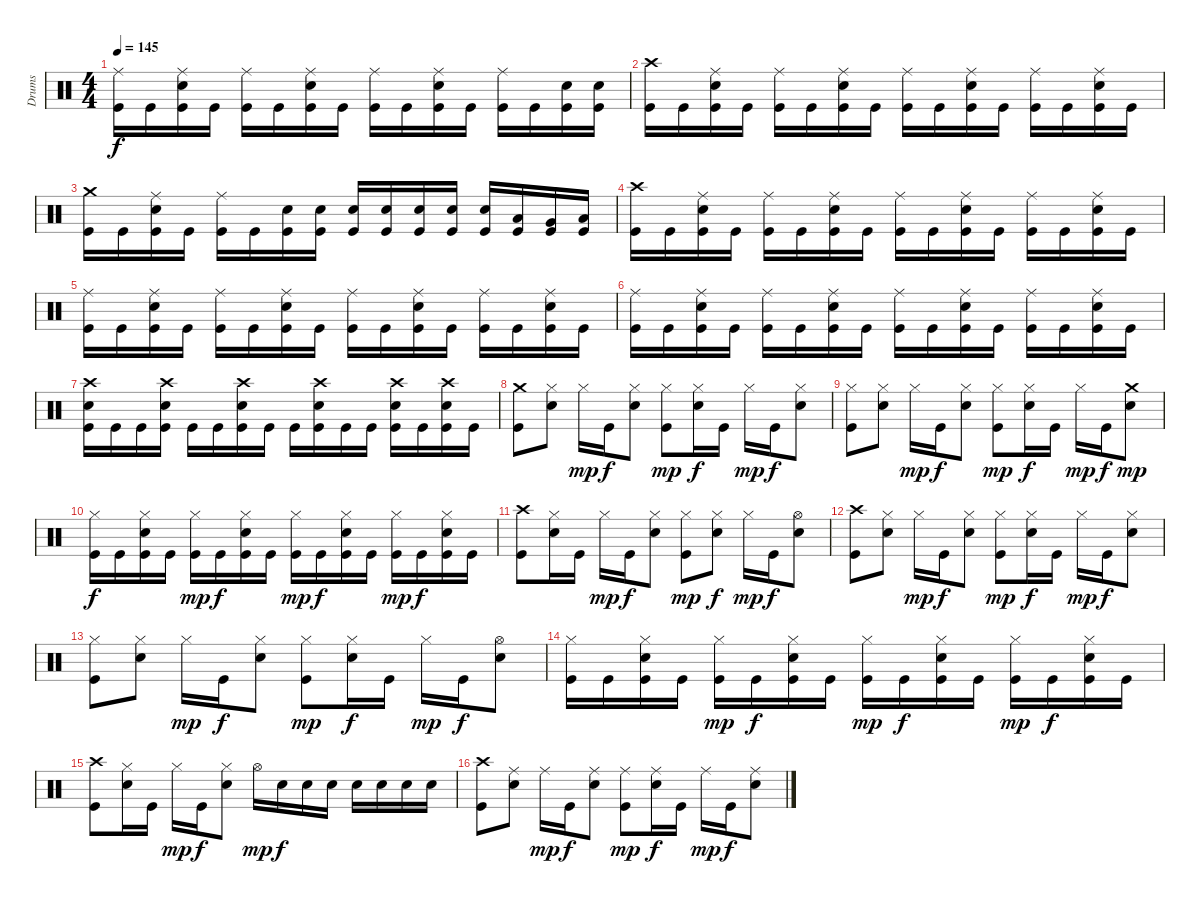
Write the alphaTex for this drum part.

\track ("Drums" "Drums") {instrument percussion}
\staff {score}
\articulation defaults
\ts (4 4)
\tempo 145
\clef neutral
\ks c
("Ride (middle)" "Kick (hit)").16{dy f} "Kick (hit)".16 ("Ride (middle)" "Snare (hit) 2" "Kick (hit)").16 "Kick (hit)".16 ("Ride (middle)" "Kick (hit)").16 "Kick (hit)".16 ("Ride (middle)" "Snare (hit) 2" "Kick (hit)").16 "Kick (hit)".16 ("Ride (middle)" "Kick (hit)").16 "Kick (hit)".16 ("Ride (middle)" "Snare (hit) 2" "Kick (hit)").16 "Kick (hit)".16 ("Ride (middle)" "Kick (hit)").16 "Kick (hit)".16 ("Snare (hit) 2" "Kick (hit)").16 ("Snare (hit) 2" "Kick (hit)").16 |
("Crash high (hit)" "Kick (hit)").16 "Kick (hit)".16 ("Ride (middle)" "Snare (hit) 2" "Kick (hit)").16 "Kick (hit)".16 ("Ride (middle)" "Kick (hit)").16 "Kick (hit)".16 ("Ride (middle)" "Snare (hit) 2" "Kick (hit)").16 "Kick (hit)".16 ("Ride (middle)" "Kick (hit)").16 "Kick (hit)".16 ("Ride (middle)" "Snare (hit) 2" "Kick (hit)").16 "Kick (hit)".16 ("Ride (middle)" "Kick (hit)").16 "Kick (hit)".16 ("Ride (middle)" "Snare (hit) 2" "Kick (hit)").16 "Kick (hit)".16 |
("Crash medium (hit)" "Kick (hit)").16 "Kick (hit)".16 ("Ride (middle)" "Snare (hit) 2" "Kick (hit)").16 "Kick (hit)".16 ("Ride (middle)" "Kick (hit)").16 "Kick (hit)".16 ("Snare (hit) 2" "Kick (hit)").16 ("Snare (hit) 2" "Kick (hit)").16 ("Snare (hit) 2" "Kick (hit)").16 ("Snare (hit) 2" "Kick (hit)").16 ("Snare (hit) 2" "Kick (hit)").16 ("Snare (hit) 2" "Kick (hit)").16 ("Snare (hit) 2" "Kick (hit)").16 ("Low Tom (hit)" "Kick (hit)").16 ("Very Low Tom (hit)" "Kick (hit)").16 ("Low Floor Tom (hit)" "Kick (hit)").16 |
("Crash high (hit)" "Kick (hit)").16 "Kick (hit)".16 ("Ride (middle)" "Snare (hit) 2" "Kick (hit)").16 "Kick (hit)".16 ("Ride (middle)" "Kick (hit)").16 "Kick (hit)".16 ("Ride (middle)" "Snare (hit) 2" "Kick (hit)").16 "Kick (hit)".16 ("Ride (middle)" "Kick (hit)").16 "Kick (hit)".16 ("Ride (middle)" "Snare (hit) 2" "Kick (hit)").16 "Kick (hit)".16 ("Ride (middle)" "Kick (hit)").16 "Kick (hit)".16 ("Ride (middle)" "Snare (hit) 2" "Kick (hit)").16 "Kick (hit)".16 |
("Ride (middle)" "Kick (hit)").16 "Kick (hit)".16 ("Ride (middle)" "Snare (hit) 2" "Kick (hit)").16 "Kick (hit)".16 ("Ride (middle)" "Kick (hit)").16 "Kick (hit)".16 ("Ride (middle)" "Snare (hit) 2" "Kick (hit)").16 "Kick (hit)".16 ("Ride (middle)" "Kick (hit)").16 "Kick (hit)".16 ("Ride (middle)" "Snare (hit) 2" "Kick (hit)").16 "Kick (hit)".16 ("Ride (middle)" "Kick (hit)").16 "Kick (hit)".16 ("Ride (middle)" "Snare (hit) 2" "Kick (hit)").16 "Kick (hit)".16 |
("Ride (middle)" "Kick (hit)").16 "Kick (hit)".16 ("Ride (middle)" "Snare (hit) 2" "Kick (hit)").16 "Kick (hit)".16 ("Ride (middle)" "Kick (hit)").16 "Kick (hit)".16 ("Ride (middle)" "Snare (hit) 2" "Kick (hit)").16 "Kick (hit)".16 ("Ride (middle)" "Kick (hit)").16 "Kick (hit)".16 ("Ride (middle)" "Snare (hit) 2" "Kick (hit)").16 "Kick (hit)".16 ("Ride (middle)" "Kick (hit)").16 "Kick (hit)".16 ("Ride (middle)" "Snare (hit) 2" "Kick (hit)").16 "Kick (hit)".16 |
("Crash high (hit)" "Snare (hit) 2" "Kick (hit)").16 "Kick (hit)".16 "Kick (hit)".16 ("Crash high (hit)" "Snare (hit) 2" "Kick (hit)").16 "Kick (hit)".16 "Kick (hit)".16 ("Crash high (hit)" "Snare (hit) 2" "Kick (hit)").16 "Kick (hit)".16 "Kick (hit)".16 ("Crash high (hit)" "Snare (hit) 2" "Kick (hit)").16 "Kick (hit)".16 "Kick (hit)".16 ("Crash high (hit)" "Snare (hit) 2" "Kick (hit)").16 "Kick (hit)".16 ("Crash high (hit)" "Snare (hit) 2" "Kick (hit)").16 "Kick (hit)".16 |
("Crash medium (hit)" "Kick (hit)").8 ("Hi-Hat (closed)" "Snare (hit) 2").8 "Hi-Hat (closed)".16{dy mp} "Kick (hit)".16{dy f} ("Hi-Hat (closed)" "Snare (hit) 2").8 ("Hi-Hat (closed)" "Kick (hit)").8{dy mp} ("Hi-Hat (closed)" "Snare (hit) 2").16{dy f} "Kick (hit)".16 "Hi-Hat (closed)".16{dy mp} "Kick (hit)".16{dy f} ("Hi-Hat (closed)" "Snare (hit) 2").8 |
("Hi-Hat (closed)" "Kick (hit)").8 ("Hi-Hat (closed)" "Snare (hit) 2").8 "Hi-Hat (closed)".16{dy mp} "Kick (hit)".16{dy f} ("Hi-Hat (closed)" "Snare (hit) 2").8 ("Hi-Hat (closed)" "Kick (hit)").8{dy mp} ("Hi-Hat (closed)" "Snare (hit) 2").16{dy f} "Kick (hit)".16 "Hi-Hat (closed)".16{dy mp} "Kick (hit)".16{dy f} ("Crash medium (hit)" "Snare (hit) 2").8{dy mp} |
("Hi-Hat (closed)" "Kick (hit)").16{dy f} "Kick (hit)".16 ("Hi-Hat (closed)" "Snare (hit) 2" "Kick (hit)").16 "Kick (hit)".16 ("Hi-Hat (closed)" "Kick (hit)").16{dy mp} "Kick (hit)".16{dy f} ("Hi-Hat (closed)" "Snare (hit) 2" "Kick (hit)").16 "Kick (hit)".16 ("Hi-Hat (closed)" "Kick (hit)").16{dy mp} "Kick (hit)".16{dy f} ("Hi-Hat (closed)" "Snare (hit) 2" "Kick (hit)").16 "Kick (hit)".16 ("Hi-Hat (closed)" "Kick (hit)").16{dy mp} "Kick (hit)".16{dy f} ("Hi-Hat (closed)" "Snare (hit) 2" "Kick (hit)").16 "Kick (hit)".16 |
("Crash high (hit)" "Kick (hit)").8 ("Hi-Hat (closed)" "Snare (hit) 2").16 "Kick (hit)".16 "Hi-Hat (closed)".16{dy mp} "Kick (hit)".16{dy f} ("Hi-Hat (closed)" "Snare (hit) 2").8 ("Hi-Hat (closed)" "Kick (hit)").8{dy mp} ("Hi-Hat (closed)" "Snare (hit) 2").8{dy f} "Hi-Hat (closed)".16{dy mp} "Kick (hit)".16{dy f} ("Hi-Hat (open)" "Snare (hit) 2").8 |
("Crash high (hit)" "Kick (hit)").8 ("Hi-Hat (closed)" "Snare (hit) 2").8 "Hi-Hat (closed)".16{dy mp} "Kick (hit)".16{dy f} ("Hi-Hat (closed)" "Snare (hit) 2").8 ("Hi-Hat (closed)" "Kick (hit)").8{dy mp} ("Hi-Hat (closed)" "Snare (hit) 2").16{dy f} "Kick (hit)".16 "Hi-Hat (closed)".16{dy mp} "Kick (hit)".16{dy f} ("Hi-Hat (closed)" "Snare (hit) 2").8 |
("Hi-Hat (closed)" "Kick (hit)").8 ("Hi-Hat (closed)" "Snare (hit) 2").8 "Hi-Hat (closed)".16{dy mp} "Kick (hit)".16{dy f} ("Hi-Hat (closed)" "Snare (hit) 2").8 ("Hi-Hat (closed)" "Kick (hit)").8{dy mp} ("Hi-Hat (closed)" "Snare (hit) 2").16{dy f} "Kick (hit)".16 "Hi-Hat (closed)".16{dy mp} "Kick (hit)".16{dy f} ("Hi-Hat (open)" "Snare (hit) 2").8 |
("Hi-Hat (closed)" "Kick (hit)").16 "Kick (hit)".16 ("Hi-Hat (closed)" "Snare (hit) 2" "Kick (hit)").16 "Kick (hit)".16 ("Hi-Hat (closed)" "Kick (hit)").16{dy mp} "Kick (hit)".16{dy f} ("Hi-Hat (closed)" "Snare (hit) 2" "Kick (hit)").16 "Kick (hit)".16 ("Hi-Hat (closed)" "Kick (hit)").16{dy mp} "Kick (hit)".16{dy f} ("Hi-Hat (closed)" "Snare (hit) 2" "Kick (hit)").16 "Kick (hit)".16 ("Hi-Hat (closed)" "Kick (hit)").16{dy mp} "Kick (hit)".16{dy f} ("Hi-Hat (closed)" "Snare (hit) 2" "Kick (hit)").16 "Kick (hit)".16 |
("Crash high (hit)" "Kick (hit)").8 ("Hi-Hat (closed)" "Snare (hit) 2").16 "Kick (hit)".16 "Hi-Hat (closed)".16{dy mp} "Kick (hit)".16{dy f} ("Hi-Hat (closed)" "Snare (hit) 2").8 "Hi-Hat (open)".16{dy mp} "Snare (hit) 2".16{dy f} "Snare (hit) 2".16 "Snare (hit) 2".16 "Snare (hit) 2".16 "Snare (hit) 2".16 "Snare (hit) 2".16 "Snare (hit) 2".16 |
("Crash high (hit)" "Kick (hit)").8 ("Ride (middle)" "Snare (hit) 2").8 "Ride (middle)".16{dy mp} "Kick (hit)".16{dy f} ("Ride (middle)" "Snare (hit) 2").8 ("Ride (middle)" "Kick (hit)").8{dy mp} ("Ride (middle)" "Snare (hit) 2").16{dy f} "Kick (hit)".16 "Ride (middle)".16{dy mp} "Kick (hit)".16{dy f} ("Ride (middle)" "Snare (hit) 2").8
